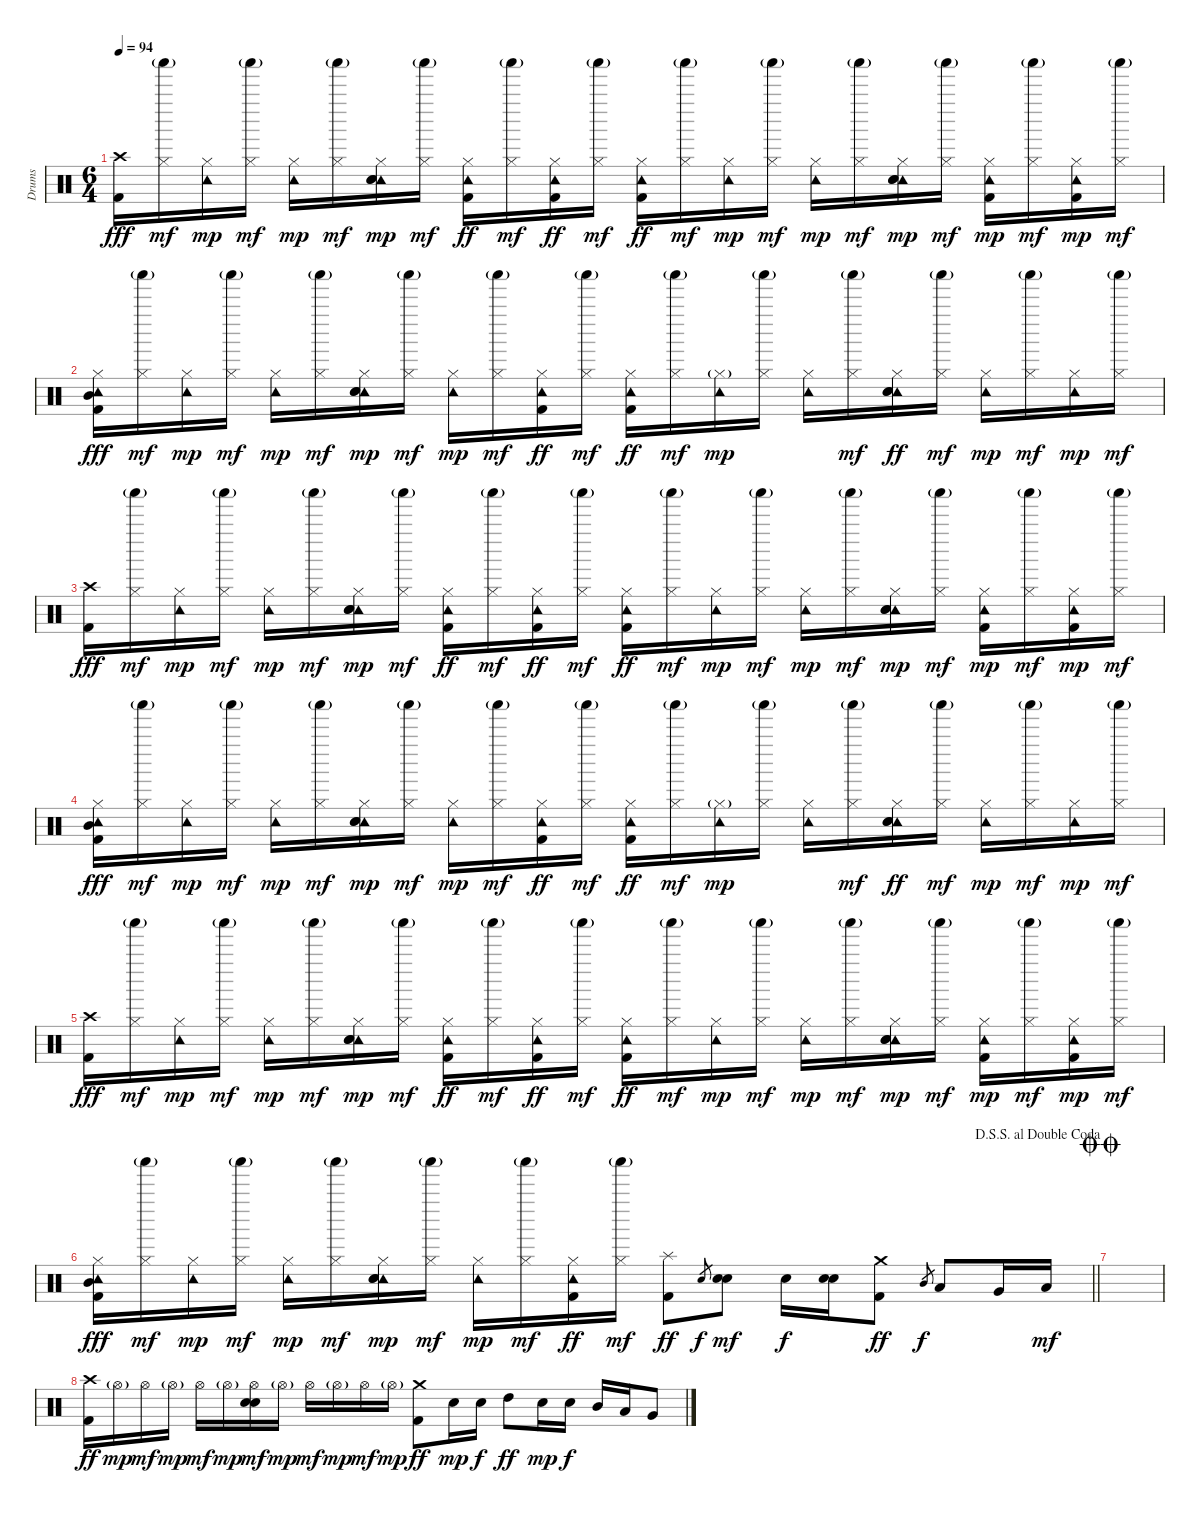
\track ("Drums" "Drums") {instrument percussion}
\staff {score}
\articulation defaults
\ts (6 4)
\tempo 94
\clef neutral
\ks c
("Crash high (hit)" "Kick (hit) 2").16{dy fff} ("Shaker (hit)"{g} "Hi-Hat (closed)").16{dy mf} ("Hi-Hat (closed)" "Tambourine (hit)").16{dy mp} ("Shaker (hit)"{g} "Hi-Hat (closed)").16{dy mf} ("Hi-Hat (closed)" "Tambourine (hit)").16{dy mp} ("Shaker (hit)"{g} "Hi-Hat (closed)").16{dy mf} ("Hi-Hat (closed)" "Tambourine (hit)" "Electric Snare (hit)" "Metronome (bell)").16{dy mp} ("Shaker (hit)"{g} "Hi-Hat (closed)").16{dy mf} ("Hi-Hat (closed)" "Tambourine (hit)" "Kick (hit) 2").16{dy ff} ("Shaker (hit)"{g} "Hi-Hat (closed)").16{dy mf} ("Hi-Hat (closed)" "Tambourine (hit)" "Kick (hit) 2").16{dy ff} ("Shaker (hit)"{g} "Hi-Hat (closed)").16{dy mf} ("Hi-Hat (closed)" "Tambourine (hit)" "Kick (hit) 2").16{dy ff} ("Shaker (hit)"{g} "Hi-Hat (closed)").16{dy mf} ("Hi-Hat (closed)" "Tambourine (hit)").16{dy mp} ("Shaker (hit)"{g} "Hi-Hat (closed)").16{dy mf} ("Hi-Hat (closed)" "Tambourine (hit)").16{dy mp} ("Shaker (hit)"{g} "Hi-Hat (closed)").16{dy mf} ("Hi-Hat (closed)" "Tambourine (hit)" "Electric Snare (hit)" "Metronome (bell)").16{dy mp} ("Shaker (hit)"{g} "Hi-Hat (closed)").16{dy mf} ("Hi-Hat (closed)" "Tambourine (hit)" "Kick (hit) 2").16{dy mp} ("Shaker (hit)"{g} "Hi-Hat (closed)").16{dy mf} ("Hi-Hat (closed)" "Tambourine (hit)" "Kick (hit) 2").16{dy mp} ("Shaker (hit)"{g} "Hi-Hat (closed)").16{dy mf} |
("Hi-Hat (closed)" "Tambourine (hit)" "Mid Tom (hit)" "Kick (hit) 2").16{dy fff} ("Shaker (hit)"{g} "Hi-Hat (closed)").16{dy mf} ("Hi-Hat (closed)" "Tambourine (hit)").16{dy mp} ("Shaker (hit)"{g} "Hi-Hat (closed)").16{dy mf} ("Hi-Hat (closed)" "Tambourine (hit)").16{dy mp} ("Shaker (hit)"{g} "Hi-Hat (closed)").16{dy mf} ("Hi-Hat (closed)" "Tambourine (hit)" "Electric Snare (hit)" "Metronome (bell)").16{dy mp} ("Shaker (hit)"{g} "Hi-Hat (closed)").16{dy mf} ("Hi-Hat (closed)" "Tambourine (hit)").16{dy mp} ("Shaker (hit)"{g} "Hi-Hat (closed)").16{dy mf} ("Hi-Hat (closed)" "Tambourine (hit)" "Kick (hit) 2").16{dy ff} ("Shaker (hit)"{g} "Hi-Hat (closed)").16{dy mf} ("Hi-Hat (closed)" "Tambourine (hit)" "Kick (hit) 2").16{dy ff} ("Shaker (hit)"{g} "Hi-Hat (closed)").16{dy mf} ("Hi-Hat (closed)"{g} "Tambourine (hit)").16{dy mp} ("Shaker (hit)"{g} "Hi-Hat (closed)").16 ("Hi-Hat (closed)" "Tambourine (hit)").16 ("Shaker (hit)"{g} "Hi-Hat (closed)").16{dy mf} ("Hi-Hat (closed)" "Tambourine (hit)" "Electric Snare (hit)" "Metronome (bell)").16{dy ff} ("Shaker (hit)"{g} "Hi-Hat (closed)").16{dy mf} ("Hi-Hat (closed)" "Tambourine (hit)").16{dy mp} ("Shaker (hit)"{g} "Hi-Hat (closed)").16{dy mf} ("Hi-Hat (closed)" "Tambourine (hit)").16{dy mp} ("Shaker (hit)"{g} "Hi-Hat (closed)").16{dy mf} |
("Crash high (hit)" "Kick (hit) 2").16{dy fff} ("Shaker (hit)"{g} "Hi-Hat (closed)").16{dy mf} ("Hi-Hat (closed)" "Tambourine (hit)").16{dy mp} ("Shaker (hit)"{g} "Hi-Hat (closed)").16{dy mf} ("Hi-Hat (closed)" "Tambourine (hit)").16{dy mp} ("Shaker (hit)"{g} "Hi-Hat (closed)").16{dy mf} ("Hi-Hat (closed)" "Tambourine (hit)" "Electric Snare (hit)" "Metronome (bell)").16{dy mp} ("Shaker (hit)"{g} "Hi-Hat (closed)").16{dy mf} ("Hi-Hat (closed)" "Tambourine (hit)" "Kick (hit) 2").16{dy ff} ("Shaker (hit)"{g} "Hi-Hat (closed)").16{dy mf} ("Hi-Hat (closed)" "Tambourine (hit)" "Kick (hit) 2").16{dy ff} ("Shaker (hit)"{g} "Hi-Hat (closed)").16{dy mf} ("Hi-Hat (closed)" "Tambourine (hit)" "Kick (hit) 2").16{dy ff} ("Shaker (hit)"{g} "Hi-Hat (closed)").16{dy mf} ("Hi-Hat (closed)" "Tambourine (hit)").16{dy mp} ("Shaker (hit)"{g} "Hi-Hat (closed)").16{dy mf} ("Hi-Hat (closed)" "Tambourine (hit)").16{dy mp} ("Shaker (hit)"{g} "Hi-Hat (closed)").16{dy mf} ("Hi-Hat (closed)" "Tambourine (hit)" "Electric Snare (hit)" "Metronome (bell)").16{dy mp} ("Shaker (hit)"{g} "Hi-Hat (closed)").16{dy mf} ("Hi-Hat (closed)" "Tambourine (hit)" "Kick (hit) 2").16{dy mp} ("Shaker (hit)"{g} "Hi-Hat (closed)").16{dy mf} ("Hi-Hat (closed)" "Tambourine (hit)" "Kick (hit) 2").16{dy mp} ("Shaker (hit)"{g} "Hi-Hat (closed)").16{dy mf} |
("Hi-Hat (closed)" "Tambourine (hit)" "Mid Tom (hit)" "Kick (hit) 2").16{dy fff} ("Shaker (hit)"{g} "Hi-Hat (closed)").16{dy mf} ("Hi-Hat (closed)" "Tambourine (hit)").16{dy mp} ("Shaker (hit)"{g} "Hi-Hat (closed)").16{dy mf} ("Hi-Hat (closed)" "Tambourine (hit)").16{dy mp} ("Shaker (hit)"{g} "Hi-Hat (closed)").16{dy mf} ("Hi-Hat (closed)" "Tambourine (hit)" "Electric Snare (hit)" "Metronome (bell)").16{dy mp} ("Shaker (hit)"{g} "Hi-Hat (closed)").16{dy mf} ("Hi-Hat (closed)" "Tambourine (hit)").16{dy mp} ("Shaker (hit)"{g} "Hi-Hat (closed)").16{dy mf} ("Hi-Hat (closed)" "Tambourine (hit)" "Kick (hit) 2").16{dy ff} ("Shaker (hit)"{g} "Hi-Hat (closed)").16{dy mf} ("Hi-Hat (closed)" "Tambourine (hit)" "Kick (hit) 2").16{dy ff} ("Shaker (hit)"{g} "Hi-Hat (closed)").16{dy mf} ("Hi-Hat (closed)"{g} "Tambourine (hit)").16{dy mp} ("Shaker (hit)"{g} "Hi-Hat (closed)").16 ("Hi-Hat (closed)" "Tambourine (hit)").16 ("Shaker (hit)"{g} "Hi-Hat (closed)").16{dy mf} ("Hi-Hat (closed)" "Tambourine (hit)" "Electric Snare (hit)" "Metronome (bell)").16{dy ff} ("Shaker (hit)"{g} "Hi-Hat (closed)").16{dy mf} ("Hi-Hat (closed)" "Tambourine (hit)").16{dy mp} ("Shaker (hit)"{g} "Hi-Hat (closed)").16{dy mf} ("Hi-Hat (closed)" "Tambourine (hit)").16{dy mp} ("Shaker (hit)"{g} "Hi-Hat (closed)").16{dy mf} |
("Crash high (hit)" "Kick (hit) 2").16{dy fff} ("Shaker (hit)"{g} "Hi-Hat (closed)").16{dy mf} ("Hi-Hat (closed)" "Tambourine (hit)").16{dy mp} ("Shaker (hit)"{g} "Hi-Hat (closed)").16{dy mf} ("Hi-Hat (closed)" "Tambourine (hit)").16{dy mp} ("Shaker (hit)"{g} "Hi-Hat (closed)").16{dy mf} ("Hi-Hat (closed)" "Tambourine (hit)" "Electric Snare (hit)" "Metronome (bell)").16{dy mp} ("Shaker (hit)"{g} "Hi-Hat (closed)").16{dy mf} ("Hi-Hat (closed)" "Tambourine (hit)" "Kick (hit) 2").16{dy ff} ("Shaker (hit)"{g} "Hi-Hat (closed)").16{dy mf} ("Hi-Hat (closed)" "Tambourine (hit)" "Kick (hit) 2").16{dy ff} ("Shaker (hit)"{g} "Hi-Hat (closed)").16{dy mf} ("Hi-Hat (closed)" "Tambourine (hit)" "Kick (hit) 2").16{dy ff} ("Shaker (hit)"{g} "Hi-Hat (closed)").16{dy mf} ("Hi-Hat (closed)" "Tambourine (hit)").16{dy mp} ("Shaker (hit)"{g} "Hi-Hat (closed)").16{dy mf} ("Hi-Hat (closed)" "Tambourine (hit)").16{dy mp} ("Shaker (hit)"{g} "Hi-Hat (closed)").16{dy mf} ("Hi-Hat (closed)" "Tambourine (hit)" "Electric Snare (hit)" "Metronome (bell)").16{dy mp} ("Shaker (hit)"{g} "Hi-Hat (closed)").16{dy mf} ("Hi-Hat (closed)" "Tambourine (hit)" "Kick (hit) 2").16{dy mp} ("Shaker (hit)"{g} "Hi-Hat (closed)").16{dy mf} ("Hi-Hat (closed)" "Tambourine (hit)" "Kick (hit) 2").16{dy mp} ("Shaker (hit)"{g} "Hi-Hat (closed)").16{dy mf} |
\jump dalsegnosegnoaldoublecoda
\barLineRight lightlight
("Hi-Hat (closed)" "Tambourine (hit)" "Mid Tom (hit)" "Kick (hit) 2").16{dy fff} ("Shaker (hit)"{g} "Hi-Hat (closed)").16{dy mf} ("Hi-Hat (closed)" "Tambourine (hit)").16{dy mp} ("Shaker (hit)"{g} "Hi-Hat (closed)").16{dy mf} ("Hi-Hat (closed)" "Tambourine (hit)").16{dy mp} ("Shaker (hit)"{g} "Hi-Hat (closed)").16{dy mf} ("Hi-Hat (closed)" "Tambourine (hit)" "Electric Snare (hit)" "Metronome (bell)").16{dy mp} ("Shaker (hit)"{g} "Hi-Hat (closed)").16{dy mf} ("Hi-Hat (closed)" "Tambourine (hit)").16{dy mp} ("Shaker (hit)"{g} "Hi-Hat (closed)").16{dy mf} ("Hi-Hat (closed)" "Tambourine (hit)" "Kick (hit) 2").16{dy ff} ("Shaker (hit)"{g} "Hi-Hat (closed)").16{dy mf} ("Splash (hit)" "Kick (hit) 2").8{dy ff} "Electric Snare (hit)".8{gr dy f} ("Electric Snare (hit)" "Metronome (bell)").8{dy mf} "Electric Snare (hit)".16{dy f} ("Electric Snare (hit)" "Metronome (bell)").16 ("Crash medium (hit)" "Kick (hit) 2").8{dy ff} "Mid Tom (hit)".8{gr dy f} "Low Tom (hit)".8 "Very Low Tom (hit)".16 "Low Floor Tom (hit)".16{dy mf} |
\jump doublecoda
|
("Crash high (hit)" "Kick (hit) 2").16{dy ff} "Hi-Hat (open)"{g}.16{dy mp} "Hi-Hat (open)".16{dy mf} "Hi-Hat (open)"{g}.16{dy mp} "Hi-Hat (open)".16{dy mf} "Hi-Hat (open)"{g}.16{dy mp} ("Hi-Hat (open)" "Electric Snare (hit)" "Metronome (bell)").16{dy mf} "Hi-Hat (open)"{g}.16{dy mp} "Hi-Hat (open)".16{dy mf} "Hi-Hat (open)"{g}.16{dy mp} "Hi-Hat (open)".16{dy mf} "Hi-Hat (open)"{g}.16{dy mp} ("Crash medium (hit)" "Kick (hit) 2").8{dy ff} "Electric Snare (hit)".16{dy mp} "Electric Snare (hit)".16{dy f} "High Tom (hit)".8{dy ff} "Electric Snare (hit)".16{dy mp} "Electric Snare (hit)".16{dy f} "Mid Tom (hit)".16 "Low Tom (hit)".16 "Very Low Tom (hit)".8
